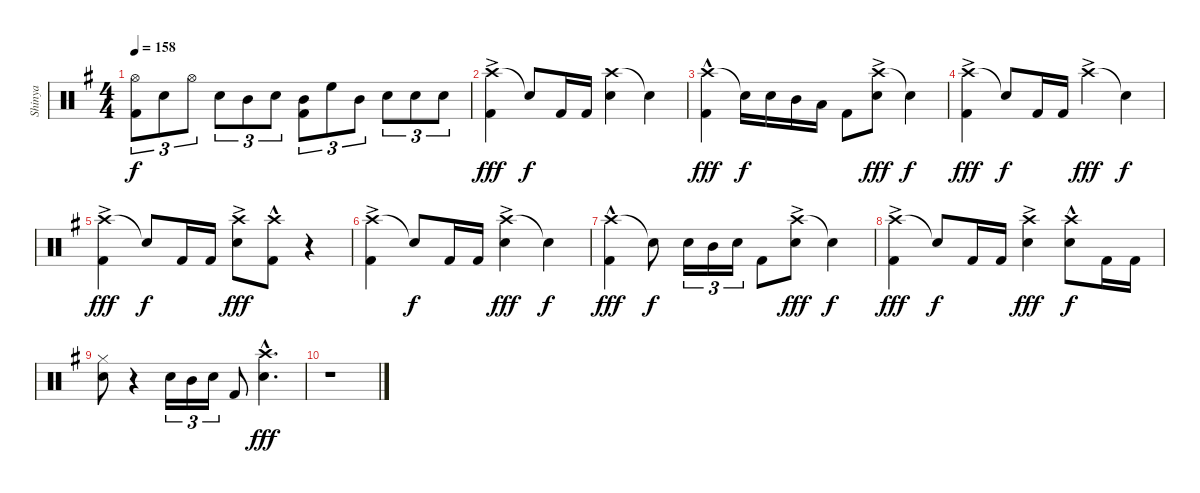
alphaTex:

\track ("Shinya" "Shinya") {instrument percussion}
\staff {score}
\articulation defaults
\ts (4 4)
\tempo 158
\clef neutral
\ks g
("Hi-Hat (open)" "Kick (hit) 2").8{tu (3 2) dy f} "Snare (hit) 2".8{tu (3 2)} "Hi-Hat (open)".8{tu (3 2)} "Snare (hit) 2".8{tu (3 2)} "Mid Tom (hit)".8{tu (3 2)} "Snare (hit) 2".8{tu (3 2)} ("Mid Tom (hit)" "Kick (hit) 2").8{tu (3 2)} "High Floor Tom (hit)".8{tu (3 2)} "Mid Tom (hit)".8{tu (3 2)} "Snare (hit) 2".8{tu (3 2)} "Snare (hit) 2".8{tu (3 2)} "Snare (hit) 2".8{tu (3 2)} |
("Crash high (hit)"{ac} "Kick (hit) 2").4{dy fff} "Snare (hit)"{t}.8{dy f} "Kick (hit) 2".16 "Kick (hit) 2".16 ("Crash high (hit)" "Snare (hit) 2").4 "Snare (hit)"{t}.4 |
("Crash high (hit)"{hac} "Kick (hit) 2").4{dy fff} "Snare (hit)"{t}.16{dy f} "Snare (hit) 2".16 "Mid Tom (hit)".16 "Low Tom (hit)".16 "Kick (hit) 2".8 ("Crash high (hit)"{ac} "Snare (hit) 2").8{dy fff} "Snare (hit)"{t}.4{dy f} |
("Crash high (hit)"{ac} "Kick (hit) 2").4{dy fff} "Snare (hit)"{t}.8{dy f} "Kick (hit) 2".16 "Kick (hit) 2".16 "Crash high (hit)"{ac}.4{dy fff} "Snare (hit)"{t}.4{dy f} |
("Crash high (hit)"{ac} "Kick (hit) 2").4{dy fff} "Snare (hit)"{t}.8{dy f} "Kick (hit) 2".16 "Kick (hit) 2".16 ("Crash high (hit)"{ac} "Snare (hit) 2").8{dy fff} ("Crash high (hit)"{hac} "Kick (hit) 2").8 r.4 |
("Crash high (hit)"{ac} "Kick (hit) 2").4 "Snare (hit)"{t}.8{dy f} "Kick (hit) 2".16 "Kick (hit) 2".16 ("Crash high (hit)"{ac} "Snare (hit) 2").4{dy fff} "Snare (hit)"{t}.4{dy f} |
("Crash high (hit)"{hac} "Kick (hit) 2").4{dy fff} "Snare (hit)"{t}.8{dy f} "Snare (hit) 2".16{tu (3 2)} "Mid Tom (hit)".16{tu (3 2)} "Snare (hit) 2".16{tu (3 2)} "Kick (hit) 2".8 ("Crash high (hit)"{ac} "Snare (hit) 2").8{dy fff} "Snare (hit)"{t}.4{dy f} |
("Crash high (hit)"{ac} "Kick (hit) 2").4{dy fff} "Snare (hit)"{t}.8{dy f} "Kick (hit) 2".16 "Kick (hit) 2".16 ("Crash high (hit)"{ac} "Snare (hit) 2").4{dy fff} ("Crash high (hit)"{hac} "Snare (hit) 2").8{dy f} "Kick (hit) 2".16 "Kick (hit) 2".16 |
("Hi-Hat (closed)" "Snare (hit) 2").8 r.4 "Snare (hit) 2".16{tu (3 2)} "Mid Tom (hit)".16{tu (3 2)} "Snare (hit) 2".16{tu (3 2)} "Kick (hit) 2".8 ("Crash high (hit)"{hac} "Snare (hit) 2"{hac}).4{d dy fff} |
r.1
